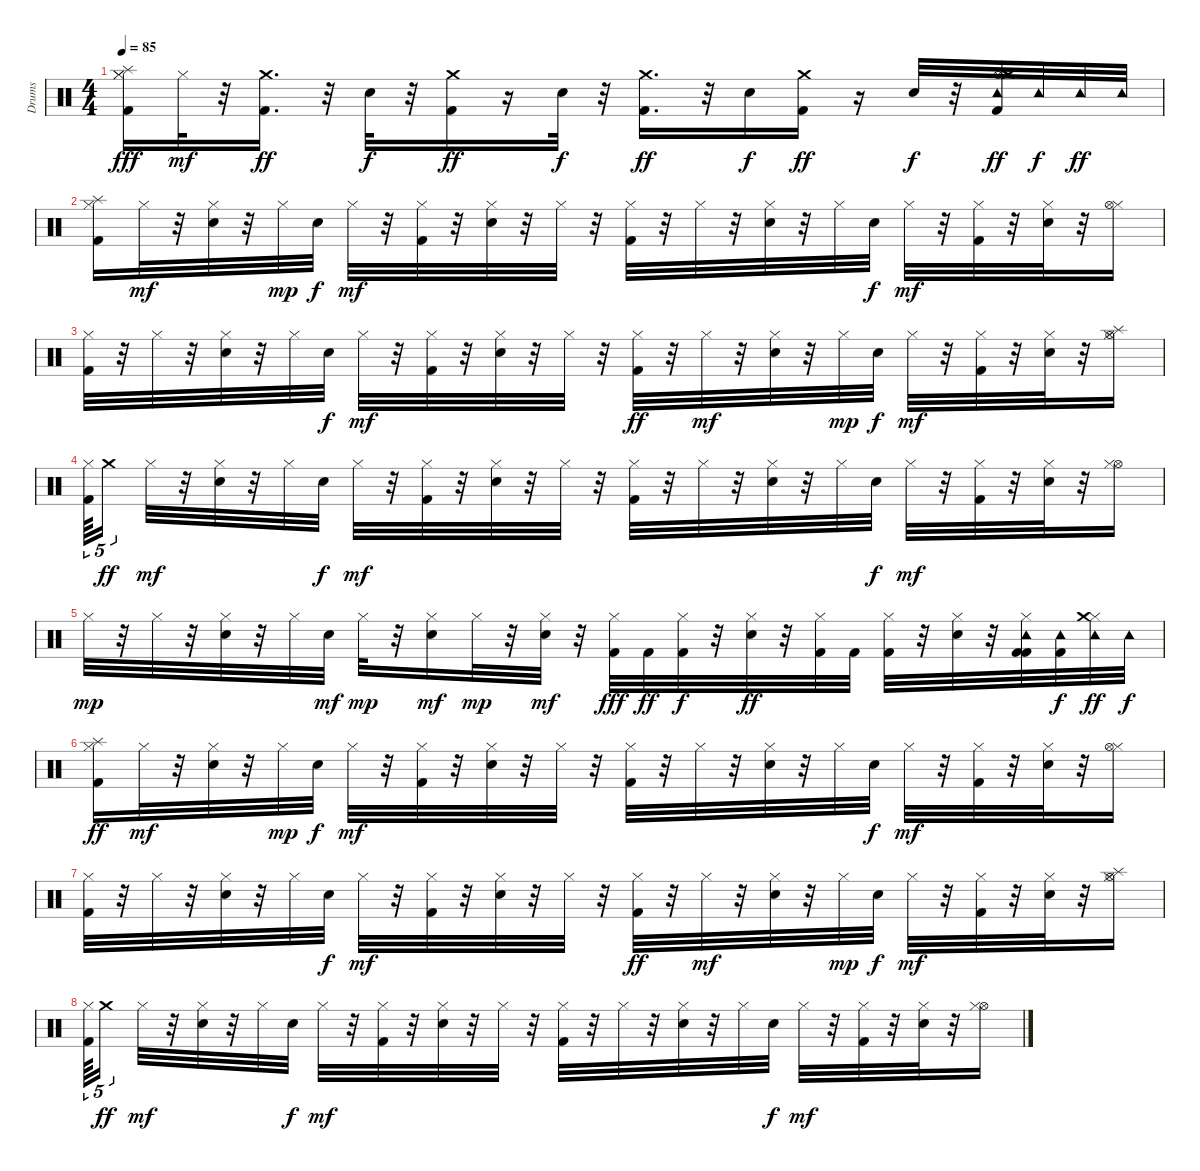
\track ("Drums" "Drums") {instrument percussion}
\staff {score}
\articulation defaults
\ts (4 4)
\tempo 85
\clef neutral
\ks c
("Hi-Hat (closed)" "Kick (hit) 2" "Splash (hit)" "Hi-Hat (closed)").16{dy fff} "Hi-Hat (closed)".32{dy mf} r.32 ("Kick (hit) 2" "Crash medium (hit)").16{d dy ff} r.32 "Electric Snare (hit)".32{dy f} r.32 ("Kick (hit) 2" "Crash medium (hit)").16{dy ff} r.16 "Electric Snare (hit)".32{dy f} r.32 ("Kick (hit) 2" "Crash medium (hit)").16{d dy ff} r.32 "Electric Snare (hit)".16{dy f} ("Crash medium (hit)" "Kick (hit) 2").16{dy ff} r.16 "Electric Snare (hit)".32{dy f} r.32 ("Hi-Hat (open)" "Crash medium (hit)" "Kick (hit) 2" "Tambourine (hit)").32{dy ff} "Tambourine (hit)".32{dy f} "Tambourine (hit)".32{dy ff} "Tambourine (hit)".32 |
("Splash (hit)" "Kick (hit) 2" "Hi-Hat (closed)").16 "Hi-Hat (closed)".32{dy mf} r.32 ("Hi-Hat (closed)" "Electric Snare (hit)").32 r.32 "Hi-Hat (closed)".32{dy mp} "Electric Snare (hit)".32{dy f} "Hi-Hat (closed)".32{dy mf} r.32 ("Kick (hit) 2" "Hi-Hat (closed)").32 r.32 ("Electric Snare (hit)" "Hi-Hat (closed)").32 r.32 "Hi-Hat (closed)".32 r.32 ("Kick (hit) 2" "Hi-Hat (closed)").32 r.32 "Hi-Hat (closed)".32 r.32 ("Electric Snare (hit)" "Hi-Hat (closed)").32 r.32 "Hi-Hat (closed)".32 "Electric Snare (hit)".32{dy f} "Hi-Hat (closed)".32{dy mf} r.32 ("Kick (hit) 2" "Hi-Hat (closed)").32 r.32 ("Electric Snare (hit)" "Hi-Hat (closed)").32 r.32 ("Hi-Hat (closed)" "Hi-Hat (open)").16 |
("Kick (hit) 2" "Hi-Hat (closed)").32 r.32 "Hi-Hat (closed)".32 r.32 ("Electric Snare (hit)" "Hi-Hat (closed)").32 r.32 "Hi-Hat (closed)".32 "Electric Snare (hit)".32{dy f} "Hi-Hat (closed)".32{dy mf} r.32 ("Kick (hit) 2" "Hi-Hat (closed)").32 r.32 ("Hi-Hat (closed)" "Electric Snare (hit)").32 r.32 "Hi-Hat (closed)".32 r.32 ("Hi-Hat (closed)" "Kick (hit) 2").32{dy ff} r.32 "Hi-Hat (closed)".32{dy mf} r.32 ("Electric Snare (hit)" "Hi-Hat (closed)").32 r.32 "Hi-Hat (closed)".32{dy mp} "Electric Snare (hit)".32{dy f} "Hi-Hat (closed)".32{dy mf} r.32 ("Kick (hit) 2" "Hi-Hat (closed)").32 r.32 ("Electric Snare (hit)" "Hi-Hat (closed)").32 r.32 ("Hi-Hat (open)" "Hi-Hat (closed)" "Splash (hit)").16 |
("Kick (hit) 2" "Hi-Hat (closed)").64{tu (5 4)} "Crash medium (hit)".16{tu (5 4) dy ff beam splitsecondary} "Hi-Hat (closed)".32{dy mf} r.32 ("Electric Snare (hit)" "Hi-Hat (closed)").32 r.32 "Hi-Hat (closed)".32 "Electric Snare (hit)".32{dy f} "Hi-Hat (closed)".32{dy mf} r.32 ("Kick (hit) 2" "Hi-Hat (closed)").32 r.32 ("Electric Snare (hit)" "Hi-Hat (closed)").32 r.32 "Hi-Hat (closed)".32 r.32 ("Kick (hit) 2" "Hi-Hat (closed)").32 r.32 "Hi-Hat (closed)".32 r.32 ("Electric Snare (hit)" "Hi-Hat (closed)").32 r.32 "Hi-Hat (closed)".32 "Electric Snare (hit)".32{dy f} "Hi-Hat (closed)".32{dy mf} r.32 ("Kick (hit) 2" "Hi-Hat (closed)").32 r.32 ("Electric Snare (hit)" "Hi-Hat (closed)").32 r.32 ("Hi-Hat (open)" "Hi-Hat (closed)").16 |
"Hi-Hat (closed)".32{dy mp} r.32 "Hi-Hat (closed)".32 r.32 ("Hi-Hat (closed)" "Electric Snare (hit)").32 r.32 "Hi-Hat (closed)".32 "Electric Snare (hit)".32{dy mf} "Hi-Hat (closed)".32{dy mp} r.32 ("Electric Snare (hit)" "Hi-Hat (closed)").16{dy mf} "Hi-Hat (closed)".32{dy mp} r.32 ("Electric Snare (hit)" "Hi-Hat (closed)").32{dy mf} r.32 ("Hi-Hat (closed)" "Kick (hit) 2").32{dy fff} "Kick (hit) 2".32{dy ff} ("Hi-Hat (closed)" "Kick (hit) 2").32{dy f} r.32 ("Hi-Hat (closed)" "Electric Snare (hit)").32{dy ff} r.32 ("Hi-Hat (closed)" "Kick (hit) 2").32 "Kick (hit) 2".32 ("Hi-Hat (closed)" "Kick (hit) 2").32 r.32 ("Hi-Hat (closed)" "Electric Snare (hit)").32 r.32 ("Hi-Hat (closed)" "Kick (hit) 2" "Kick (hit) 2" "Tambourine (hit)").32 ("Kick (hit) 2" "Tambourine (hit)").32{dy f} ("Hi-Hat (closed)" "Tambourine (hit)" "Crash medium (hit)").32{dy ff} "Tambourine (hit)".32{dy f} |
("Splash (hit)" "Kick (hit) 2" "Hi-Hat (closed)").16{dy ff} "Hi-Hat (closed)".32{dy mf} r.32 ("Hi-Hat (closed)" "Electric Snare (hit)").32 r.32 "Hi-Hat (closed)".32{dy mp} "Electric Snare (hit)".32{dy f} "Hi-Hat (closed)".32{dy mf} r.32 ("Kick (hit) 2" "Hi-Hat (closed)").32 r.32 ("Electric Snare (hit)" "Hi-Hat (closed)").32 r.32 "Hi-Hat (closed)".32 r.32 ("Kick (hit) 2" "Hi-Hat (closed)").32 r.32 "Hi-Hat (closed)".32 r.32 ("Electric Snare (hit)" "Hi-Hat (closed)").32 r.32 "Hi-Hat (closed)".32 "Electric Snare (hit)".32{dy f} "Hi-Hat (closed)".32{dy mf} r.32 ("Kick (hit) 2" "Hi-Hat (closed)").32 r.32 ("Electric Snare (hit)" "Hi-Hat (closed)").32 r.32 ("Hi-Hat (closed)" "Hi-Hat (open)").16 |
("Kick (hit) 2" "Hi-Hat (closed)").32 r.32 "Hi-Hat (closed)".32 r.32 ("Electric Snare (hit)" "Hi-Hat (closed)").32 r.32 "Hi-Hat (closed)".32 "Electric Snare (hit)".32{dy f} "Hi-Hat (closed)".32{dy mf} r.32 ("Kick (hit) 2" "Hi-Hat (closed)").32 r.32 ("Hi-Hat (closed)" "Electric Snare (hit)").32 r.32 "Hi-Hat (closed)".32 r.32 ("Hi-Hat (closed)" "Kick (hit) 2").32{dy ff} r.32 "Hi-Hat (closed)".32{dy mf} r.32 ("Electric Snare (hit)" "Hi-Hat (closed)").32 r.32 "Hi-Hat (closed)".32{dy mp} "Electric Snare (hit)".32{dy f} "Hi-Hat (closed)".32{dy mf} r.32 ("Kick (hit) 2" "Hi-Hat (closed)").32 r.32 ("Electric Snare (hit)" "Hi-Hat (closed)").32 r.32 ("Hi-Hat (open)" "Hi-Hat (closed)" "Splash (hit)").16 |
("Kick (hit) 2" "Hi-Hat (closed)").64{tu (5 4)} "Crash medium (hit)".16{tu (5 4) dy ff beam splitsecondary} "Hi-Hat (closed)".32{dy mf} r.32 ("Electric Snare (hit)" "Hi-Hat (closed)").32 r.32 "Hi-Hat (closed)".32 "Electric Snare (hit)".32{dy f} "Hi-Hat (closed)".32{dy mf} r.32 ("Kick (hit) 2" "Hi-Hat (closed)").32 r.32 ("Electric Snare (hit)" "Hi-Hat (closed)").32 r.32 "Hi-Hat (closed)".32 r.32 ("Kick (hit) 2" "Hi-Hat (closed)").32 r.32 "Hi-Hat (closed)".32 r.32 ("Electric Snare (hit)" "Hi-Hat (closed)").32 r.32 "Hi-Hat (closed)".32 "Electric Snare (hit)".32{dy f} "Hi-Hat (closed)".32{dy mf} r.32 ("Kick (hit) 2" "Hi-Hat (closed)").32 r.32 ("Electric Snare (hit)" "Hi-Hat (closed)").32 r.32 ("Hi-Hat (open)" "Hi-Hat (closed)").16
